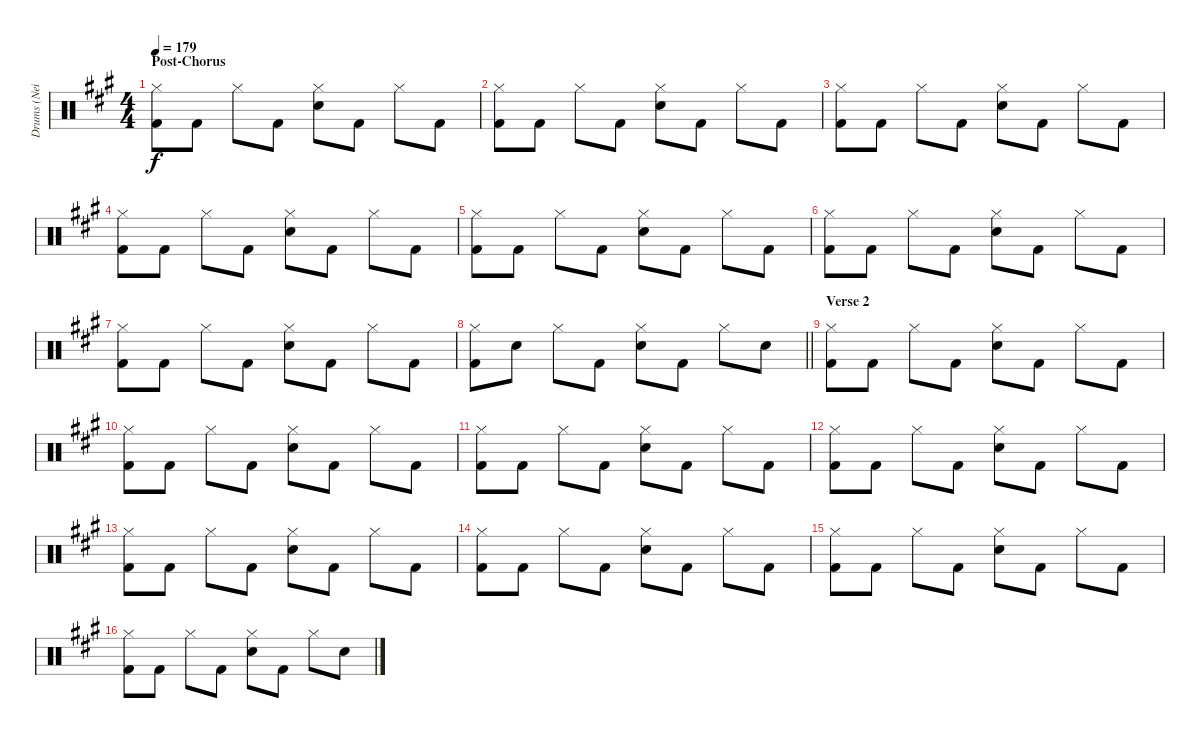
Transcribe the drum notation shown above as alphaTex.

\track ("Drums (Neil Sanderson)" "Drums (Nei") {instrument percussion}
\staff {score}
\articulation defaults
\ts (4 4)
\section ("" "Post-Chorus")
\tempo 179
\clef neutral
\ks f#minor
("Hi-Hat (closed)" "Kick (hit) 2").8{dy f} "Kick (hit) 2".8 "Hi-Hat (closed)".8 "Kick (hit) 2".8 ("Hi-Hat (closed)" "Electric Snare (hit)").8 "Kick (hit) 2".8 "Hi-Hat (closed)".8 "Kick (hit) 2".8 |
("Hi-Hat (closed)" "Kick (hit) 2").8 "Kick (hit) 2".8 "Hi-Hat (closed)".8 "Kick (hit) 2".8 ("Hi-Hat (closed)" "Electric Snare (hit)").8 "Kick (hit) 2".8 "Hi-Hat (closed)".8 "Kick (hit) 2".8 |
("Hi-Hat (closed)" "Kick (hit) 2").8 "Kick (hit) 2".8 "Hi-Hat (closed)".8 "Kick (hit) 2".8 ("Hi-Hat (closed)" "Electric Snare (hit)").8 "Kick (hit) 2".8 "Hi-Hat (closed)".8 "Kick (hit) 2".8 |
("Hi-Hat (closed)" "Kick (hit) 2").8 "Kick (hit) 2".8 "Hi-Hat (closed)".8 "Kick (hit) 2".8 ("Hi-Hat (closed)" "Electric Snare (hit)").8 "Kick (hit) 2".8 "Hi-Hat (closed)".8 "Kick (hit) 2".8 |
("Hi-Hat (closed)" "Kick (hit) 2").8 "Kick (hit) 2".8 "Hi-Hat (closed)".8 "Kick (hit) 2".8 ("Hi-Hat (closed)" "Electric Snare (hit)").8 "Kick (hit) 2".8 "Hi-Hat (closed)".8 "Kick (hit) 2".8 |
("Hi-Hat (closed)" "Kick (hit) 2").8 "Kick (hit) 2".8 "Hi-Hat (closed)".8 "Kick (hit) 2".8 ("Hi-Hat (closed)" "Electric Snare (hit)").8 "Kick (hit) 2".8 "Hi-Hat (closed)".8 "Kick (hit) 2".8 |
("Hi-Hat (closed)" "Kick (hit) 2").8 "Kick (hit) 2".8 "Hi-Hat (closed)".8 "Kick (hit) 2".8 ("Hi-Hat (closed)" "Electric Snare (hit)").8 "Kick (hit) 2".8 "Hi-Hat (closed)".8 "Kick (hit) 2".8 |
\barLineRight lightlight
("Hi-Hat (closed)" "Kick (hit) 2").8 "Electric Snare (hit)".8 "Hi-Hat (closed)".8 "Kick (hit) 2".8 ("Hi-Hat (closed)" "Electric Snare (hit)").8 "Kick (hit) 2".8 "Hi-Hat (closed)".8 "Electric Snare (hit)".8 |
\section ("" "Verse 2")
("Hi-Hat (closed)" "Kick (hit) 2").8 "Kick (hit) 2".8 "Hi-Hat (closed)".8 "Kick (hit) 2".8 ("Hi-Hat (closed)" "Electric Snare (hit)").8 "Kick (hit) 2".8 "Hi-Hat (closed)".8 "Kick (hit) 2".8 |
("Hi-Hat (closed)" "Kick (hit) 2").8 "Kick (hit) 2".8 "Hi-Hat (closed)".8 "Kick (hit) 2".8 ("Hi-Hat (closed)" "Electric Snare (hit)").8 "Kick (hit) 2".8 "Hi-Hat (closed)".8 "Kick (hit) 2".8 |
("Hi-Hat (closed)" "Kick (hit) 2").8 "Kick (hit) 2".8 "Hi-Hat (closed)".8 "Kick (hit) 2".8 ("Hi-Hat (closed)" "Electric Snare (hit)").8 "Kick (hit) 2".8 "Hi-Hat (closed)".8 "Kick (hit) 2".8 |
("Hi-Hat (closed)" "Kick (hit) 2").8 "Kick (hit) 2".8 "Hi-Hat (closed)".8 "Kick (hit) 2".8 ("Hi-Hat (closed)" "Electric Snare (hit)").8 "Kick (hit) 2".8 "Hi-Hat (closed)".8 "Kick (hit) 2".8 |
("Hi-Hat (closed)" "Kick (hit) 2").8 "Kick (hit) 2".8 "Hi-Hat (closed)".8 "Kick (hit) 2".8 ("Hi-Hat (closed)" "Electric Snare (hit)").8 "Kick (hit) 2".8 "Hi-Hat (closed)".8 "Kick (hit) 2".8 |
("Hi-Hat (closed)" "Kick (hit) 2").8 "Kick (hit) 2".8 "Hi-Hat (closed)".8 "Kick (hit) 2".8 ("Hi-Hat (closed)" "Electric Snare (hit)").8 "Kick (hit) 2".8 "Hi-Hat (closed)".8 "Kick (hit) 2".8 |
("Hi-Hat (closed)" "Kick (hit) 2").8 "Kick (hit) 2".8 "Hi-Hat (closed)".8 "Kick (hit) 2".8 ("Hi-Hat (closed)" "Electric Snare (hit)").8 "Kick (hit) 2".8 "Hi-Hat (closed)".8 "Kick (hit) 2".8 |
("Hi-Hat (closed)" "Kick (hit) 2").8 "Kick (hit) 2".8 "Hi-Hat (closed)".8 "Kick (hit) 2".8 ("Hi-Hat (closed)" "Electric Snare (hit)").8 "Kick (hit) 2".8 "Hi-Hat (closed)".8 "Electric Snare (hit)".8
